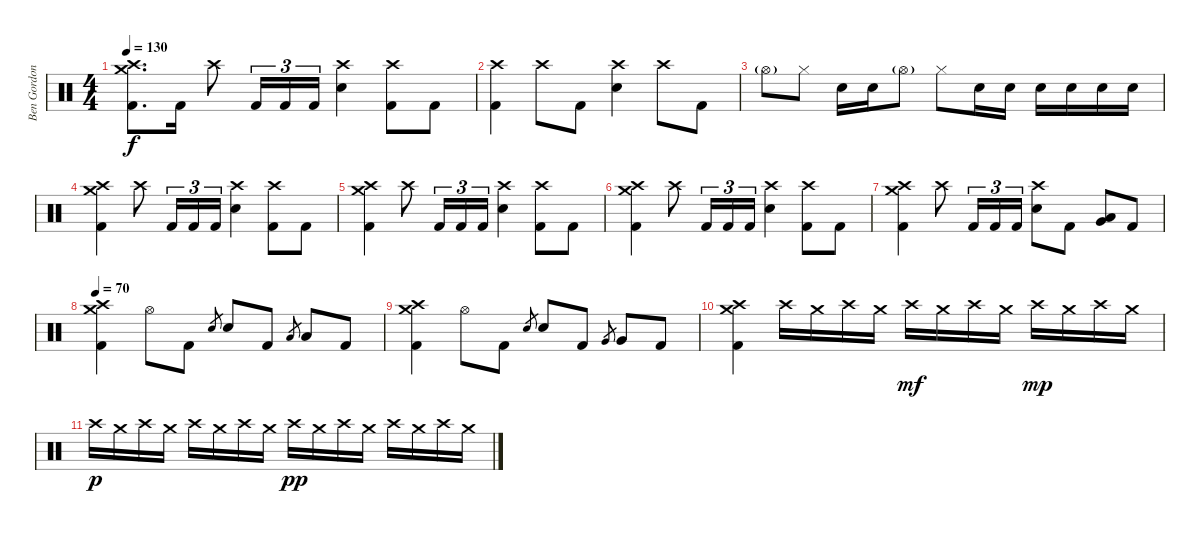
\track ("Ben Gordon" "Ben Gordon") {instrument percussion}
\staff {score}
\articulation defaults
\ts (4 4)
\tempo 130
\clef neutral
\ks c
("Crash medium (hit)" "Crash high (hit)" "Kick (hit) 2").8{d dy f} "Kick (hit) 2".16 "Crash high (hit)".8 "Kick (hit) 2".16{tu (3 2)} "Kick (hit) 2".16{tu (3 2)} "Kick (hit) 2".16{tu (3 2)} ("Crash high (hit)" "Snare (hit) 2").4 ("Crash high (hit)" "Kick (hit) 2").8 "Kick (hit) 2".8 |
("Crash high (hit)" "Kick (hit) 2").4 "Crash high (hit)".8 "Kick (hit) 2".8 ("Crash high (hit)" "Snare (hit) 2").4 "Crash high (hit)".8 "Kick (hit) 2".8 |
"Hi-Hat (open)"{g}.8 "Hi-Hat (closed)".8 "Snare (hit) 2".16 "Snare (hit) 2".16 "Hi-Hat (open)"{g}.8 "Hi-Hat (closed)".8 "Snare (hit) 2".16 "Snare (hit) 2".16 "Snare (hit) 2".16 "Snare (hit) 2".16 "Snare (hit) 2".16 "Snare (hit) 2".16 |
("Crash medium (hit)" "Crash high (hit)" "Kick (hit) 2").4 "Crash high (hit)".8 "Kick (hit) 2".16{tu (3 2)} "Kick (hit) 2".16{tu (3 2)} "Kick (hit) 2".16{tu (3 2)} ("Crash high (hit)" "Snare (hit) 2").4 ("Crash high (hit)" "Kick (hit) 2").8 "Kick (hit) 2".8 |
("Crash medium (hit)" "Crash high (hit)" "Kick (hit) 2").4 "Crash high (hit)".8 "Kick (hit) 2".16{tu (3 2)} "Kick (hit) 2".16{tu (3 2)} "Kick (hit) 2".16{tu (3 2)} ("Crash high (hit)" "Snare (hit) 2").4 ("Crash high (hit)" "Kick (hit) 2").8 "Kick (hit) 2".8 |
("Crash medium (hit)" "Crash high (hit)" "Kick (hit) 2").4 "Crash high (hit)".8 "Kick (hit) 2".16{tu (3 2)} "Kick (hit) 2".16{tu (3 2)} "Kick (hit) 2".16{tu (3 2)} ("Crash high (hit)" "Snare (hit) 2").4 ("Crash high (hit)" "Kick (hit) 2").8 "Kick (hit) 2".8 |
("Crash medium (hit)" "Crash high (hit)" "Kick (hit) 2").4 "Crash high (hit)".8 "Kick (hit) 2".16{tu (3 2)} "Kick (hit) 2".16{tu (3 2)} "Kick (hit) 2".16{tu (3 2)} ("Crash high (hit)" "Snare (hit) 2").8 "Kick (hit) 2".8 ("Very Low Tom (hit)" "Low Tom (hit)").8 "Kick (hit) 2".8 |
\tempo 70
("Crash medium (hit)" "Crash high (hit)" "Kick (hit) 2").4 "Hi-Hat (open)".8 "Kick (hit) 2".8 "Snare (hit) 2".8{gr} "Snare (hit) 2".8 "Kick (hit) 2".8 "Low Tom (hit)".8{gr} "Low Tom (hit)".8 "Kick (hit) 2".8 |
("Crash medium (hit)" "Crash high (hit)" "Kick (hit) 2").4 "Hi-Hat (open)".8 "Kick (hit) 2".8 "Snare (hit) 2".8{gr} "Snare (hit) 2".8 "Kick (hit) 2".8 "Very Low Tom (hit)".8{gr} "Very Low Tom (hit)".8 "Kick (hit) 2".8 |
("Crash high (hit)" "Crash medium (hit)" "Kick (hit) 2").4 "Crash high (hit)".16 "Crash medium (hit)".16 "Crash high (hit)".16 "Crash medium (hit)".16 "Crash high (hit)".16{dy mf} "Crash medium (hit)".16 "Crash high (hit)".16 "Crash medium (hit)".16 "Crash high (hit)".16{dy mp} "Crash medium (hit)".16 "Crash high (hit)".16 "Crash medium (hit)".16 |
"Crash high (hit)".16{dy p} "Crash medium (hit)".16 "Crash high (hit)".16 "Crash medium (hit)".16 "Crash high (hit)".16 "Crash medium (hit)".16 "Crash high (hit)".16 "Crash medium (hit)".16 "Crash high (hit)".16{dy pp} "Crash medium (hit)".16 "Crash high (hit)".16 "Crash medium (hit)".16 "Crash high (hit)".16 "Crash medium (hit)".16 "Crash high (hit)".16 "Crash medium (hit)".16
